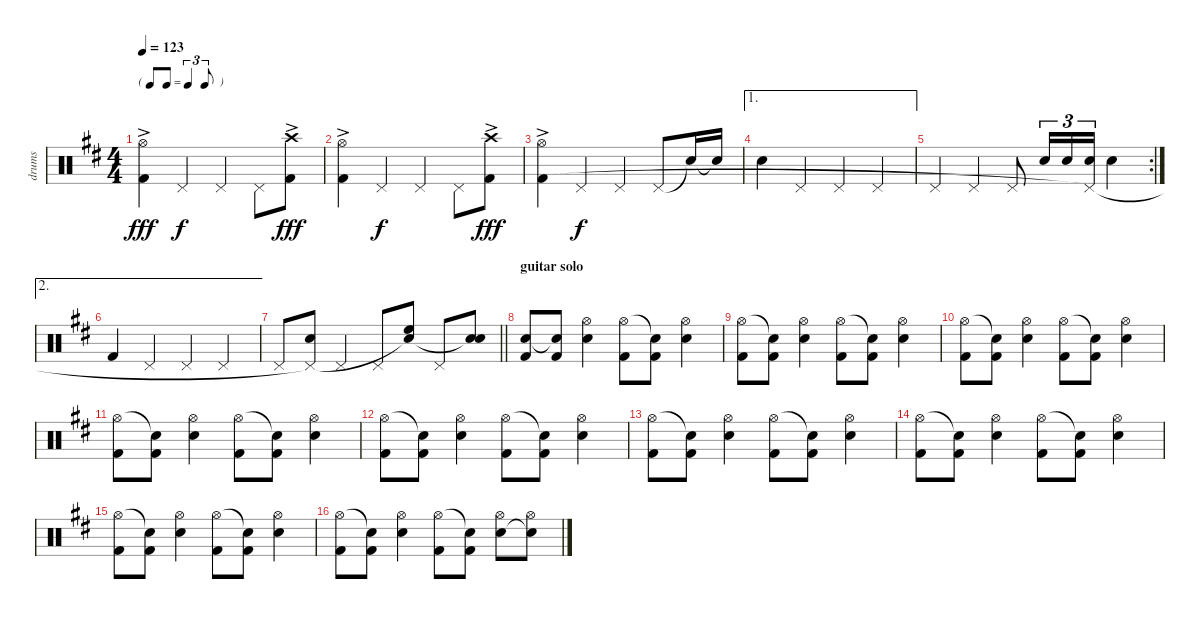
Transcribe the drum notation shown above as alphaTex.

\track ("drums" "drums") {instrument percussion}
\staff {score}
\articulation defaults
\ts (4 4)
\tf triplet8th
\tempo 123
\clef neutral
\ks d
("Hi-Hat (open)"{ac} "Kick (hit) 2").4{dy fff} "Pedal Hi-Hat (hit)".4{dy f} "Pedal Hi-Hat (hit)".4 "Pedal Hi-Hat (hit)".8 ("Crash high (hit)"{ac} "Kick (hit) 2").8{dy fff} |
("Hi-Hat (open)"{ac} "Kick (hit) 2").4 "Pedal Hi-Hat (hit)".4{dy f} "Pedal Hi-Hat (hit)".4 "Pedal Hi-Hat (hit)".8 ("Crash high (hit)"{ac} "Kick (hit) 2").8{dy fff} |
("Hi-Hat (open)"{ac} "Kick (hit) 2").4 "Pedal Hi-Hat (hit)".4{dy f} "Pedal Hi-Hat (hit)".4 "Pedal Hi-Hat (hit)".8 "Snare (hit)"{t}.16 "Snare (hit)"{t}.16 |
\ae 1 "Snare (hit) 2".4 "Pedal Hi-Hat (hit)".4 "Pedal Hi-Hat (hit)".4 "Pedal Hi-Hat (hit)".4
|
\rc 2 "Pedal Hi-Hat (hit)".4 "Pedal Hi-Hat (hit)".4 "Pedal Hi-Hat (hit)".8 "Snare (hit) 2".16{tu (3 2)} "Snare (hit) 2".16{tu (3 2)}
("Snare (hit) 2" "Pedal Hi-Hat (hit)"{t}).16{tu (3 2)} "Snare (hit) 2".4 |
\ae 2 "Kick (hit) 2".4 "Pedal Hi-Hat (hit)".4 "Pedal Hi-Hat (hit)".4 "Pedal Hi-Hat (hit)".4
|
\barLineRight lightlight "Pedal Hi-Hat (hit)".8
("Snare (hit) 2" "Pedal Hi-Hat (hit)"{t}).8 "Pedal Hi-Hat (hit)".4 "Pedal Hi-Hat (hit)".8 ("High Floor Tom (hit)" "Snare (hit)"{t}).8 "Pedal Hi-Hat (hit)".8 ("Snare (hit) 2" "Snare (hit)"{t}).8 |
\section ("" "guitar solo")
("Snare (hit) 2" "Kick (hit) 2").8 ("Snare (hit)"{t} "Kick (hit) 2").8 ("Hi-Hat (open)" "Snare (hit) 2").4 ("Hi-Hat (open)" "Kick (hit) 2").8 ("Snare (hit)"{t} "Kick (hit) 2").8 ("Hi-Hat (open)" "Snare (hit) 2").4 |
("Hi-Hat (open)" "Kick (hit) 2").8 ("Snare (hit)"{t} "Kick (hit) 2").8 ("Hi-Hat (open)" "Snare (hit) 2").4 ("Hi-Hat (open)" "Kick (hit) 2").8 ("Snare (hit)"{t} "Kick (hit) 2").8 ("Hi-Hat (open)" "Snare (hit) 2").4 |
("Hi-Hat (open)" "Kick (hit) 2").8 ("Snare (hit)"{t} "Kick (hit) 2").8 ("Hi-Hat (open)" "Snare (hit) 2").4 ("Hi-Hat (open)" "Kick (hit) 2").8 ("Snare (hit)"{t} "Kick (hit) 2").8 ("Hi-Hat (open)" "Snare (hit) 2").4 |
("Hi-Hat (open)" "Kick (hit) 2").8 ("Snare (hit)"{t} "Kick (hit) 2").8 ("Hi-Hat (open)" "Snare (hit) 2").4 ("Hi-Hat (open)" "Kick (hit) 2").8 ("Snare (hit)"{t} "Kick (hit) 2").8 ("Hi-Hat (open)" "Snare (hit) 2").4 |
("Hi-Hat (open)" "Kick (hit) 2").8 ("Snare (hit)"{t} "Kick (hit) 2").8 ("Hi-Hat (open)" "Snare (hit) 2").4 ("Hi-Hat (open)" "Kick (hit) 2").8 ("Snare (hit)"{t} "Kick (hit) 2").8 ("Hi-Hat (open)" "Snare (hit) 2").4 |
("Hi-Hat (open)" "Kick (hit) 2").8 ("Snare (hit)"{t} "Kick (hit) 2").8 ("Hi-Hat (open)" "Snare (hit) 2").4 ("Hi-Hat (open)" "Kick (hit) 2").8 ("Snare (hit)"{t} "Kick (hit) 2").8 ("Hi-Hat (open)" "Snare (hit) 2").4 |
("Hi-Hat (open)" "Kick (hit) 2").8 ("Snare (hit)"{t} "Kick (hit) 2").8 ("Hi-Hat (open)" "Snare (hit) 2").4 ("Hi-Hat (open)" "Kick (hit) 2").8 ("Snare (hit)"{t} "Kick (hit) 2").8 ("Hi-Hat (open)" "Snare (hit) 2").4 |
("Hi-Hat (open)" "Kick (hit) 2").8 ("Snare (hit)"{t} "Kick (hit) 2").8 ("Hi-Hat (open)" "Snare (hit) 2").4 ("Hi-Hat (open)" "Kick (hit) 2").8 ("Snare (hit)"{t} "Kick (hit) 2").8 ("Hi-Hat (open)" "Snare (hit) 2").4 |
("Hi-Hat (open)" "Kick (hit) 2").8 ("Snare (hit)"{t} "Kick (hit) 2").8 ("Hi-Hat (open)" "Snare (hit) 2").4 ("Hi-Hat (open)" "Kick (hit) 2").8 ("Snare (hit)"{t} "Kick (hit) 2").8 ("Hi-Hat (open)" "Snare (hit) 2").8 ("Hi-Hat (open)" "Snare (hit)"{t}).8
